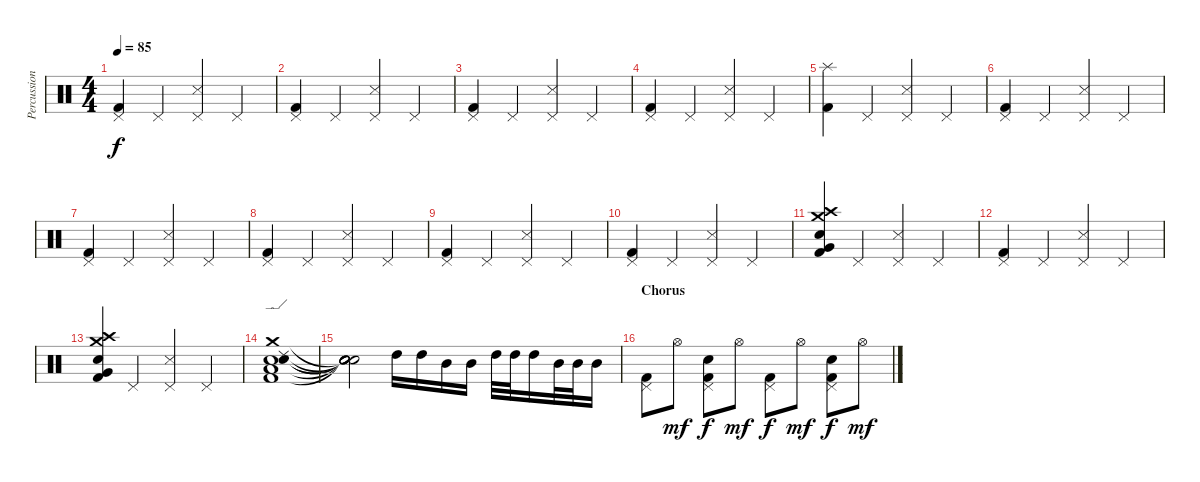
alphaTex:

\track ("Percussion" "Percussion") {instrument percussion}
\staff {score}
\articulation defaults
\ts (4 4)
\tempo 85
\clef neutral
\ks c
("Pedal Hi-Hat (hit)" "Kick (hit) 2").4{dy f} "Pedal Hi-Hat (hit)".4 ("Pedal Hi-Hat (hit)" "Snare (side stick) 3").4 "Pedal Hi-Hat (hit)".4 |
("Pedal Hi-Hat (hit)" "Kick (hit) 2").4 "Pedal Hi-Hat (hit)".4 ("Pedal Hi-Hat (hit)" "Snare (side stick) 3").4 "Pedal Hi-Hat (hit)".4 |
("Pedal Hi-Hat (hit)" "Kick (hit) 2").4 "Pedal Hi-Hat (hit)".4 ("Pedal Hi-Hat (hit)" "Snare (side stick) 3").4 "Pedal Hi-Hat (hit)".4 |
("Pedal Hi-Hat (hit)" "Kick (hit) 2").4 "Pedal Hi-Hat (hit)".4 ("Pedal Hi-Hat (hit)" "Snare (side stick) 3").4 "Pedal Hi-Hat (hit)".4 |
("Splash (hit)" "Kick (hit) 2").4 "Pedal Hi-Hat (hit)".4 ("Pedal Hi-Hat (hit)" "Snare (side stick) 3").4 "Pedal Hi-Hat (hit)".4 |
("Pedal Hi-Hat (hit)" "Kick (hit) 2").4 "Pedal Hi-Hat (hit)".4 ("Pedal Hi-Hat (hit)" "Snare (side stick) 3").4 "Pedal Hi-Hat (hit)".4 |
("Pedal Hi-Hat (hit)" "Kick (hit) 2").4 "Pedal Hi-Hat (hit)".4 ("Pedal Hi-Hat (hit)" "Snare (side stick) 3").4 "Pedal Hi-Hat (hit)".4 |
("Pedal Hi-Hat (hit)" "Kick (hit) 2").4 "Pedal Hi-Hat (hit)".4 ("Pedal Hi-Hat (hit)" "Snare (side stick) 3").4 "Pedal Hi-Hat (hit)".4 |
("Pedal Hi-Hat (hit)" "Kick (hit) 2").4 "Pedal Hi-Hat (hit)".4 ("Pedal Hi-Hat (hit)" "Snare (side stick) 3").4 "Pedal Hi-Hat (hit)".4 |
("Pedal Hi-Hat (hit)" "Kick (hit) 2").4 "Pedal Hi-Hat (hit)".4 ("Pedal Hi-Hat (hit)" "Snare (side stick) 3").4 "Pedal Hi-Hat (hit)".4 |
("Crash high (hit)" "Crash medium (hit)" "Electric Snare (hit)" "Very Low Tom (hit)" "Kick (hit) 2").4 "Pedal Hi-Hat (hit)".4 ("Pedal Hi-Hat (hit)" "Snare (side stick) 3").4 "Pedal Hi-Hat (hit)".4 |
("Pedal Hi-Hat (hit)" "Kick (hit) 2").4 "Pedal Hi-Hat (hit)".4 ("Pedal Hi-Hat (hit)" "Snare (side stick) 3").4 "Pedal Hi-Hat (hit)".4 |
("Crash high (hit)" "Crash medium (hit)" "Electric Snare (hit)" "Very Low Tom (hit)" "Kick (hit) 2").4 "Pedal Hi-Hat (hit)".4 ("Pedal Hi-Hat (hit)" "Snare (side stick) 3").4 "Pedal Hi-Hat (hit)".4 |
("Crash medium (hit)" "Ride (edge) 2" "Electric Snare (hit)" "Low Floor Tom (hit)" "Metronome (bell)" "Kick (hit) 2").1 |
("Snare (hit)"{t} "Snare (hit)"{t} "Snare (hit)"{t} "Snare (hit)"{t} "Snare (hit)"{t} "Snare (hit)"{t}).2 "High Tom (hit)".16 "High Tom (hit)".16 "Mid Tom (hit)".16 "Mid Tom (hit)".16 "High Tom (hit)".32 "High Tom (hit)".32 "High Tom (hit)".16 "Mid Tom (hit)".32 "Mid Tom (hit)".32 "Mid Tom (hit)".16 |
\section ("" "Chorus")
("Pedal Hi-Hat (hit)" "Kick (hit) 2").8 "Hi-Hat (open)".8{dy mf} ("Pedal Hi-Hat (hit)" "Electric Snare (hit)" "Kick (hit) 2").8{dy f} "Hi-Hat (open)".8{dy mf} ("Pedal Hi-Hat (hit)" "Kick (hit) 2").8{dy f} "Hi-Hat (open)".8{dy mf} ("Pedal Hi-Hat (hit)" "Electric Snare (hit)" "Kick (hit) 2").8{dy f} "Hi-Hat (open)".8{dy mf}
